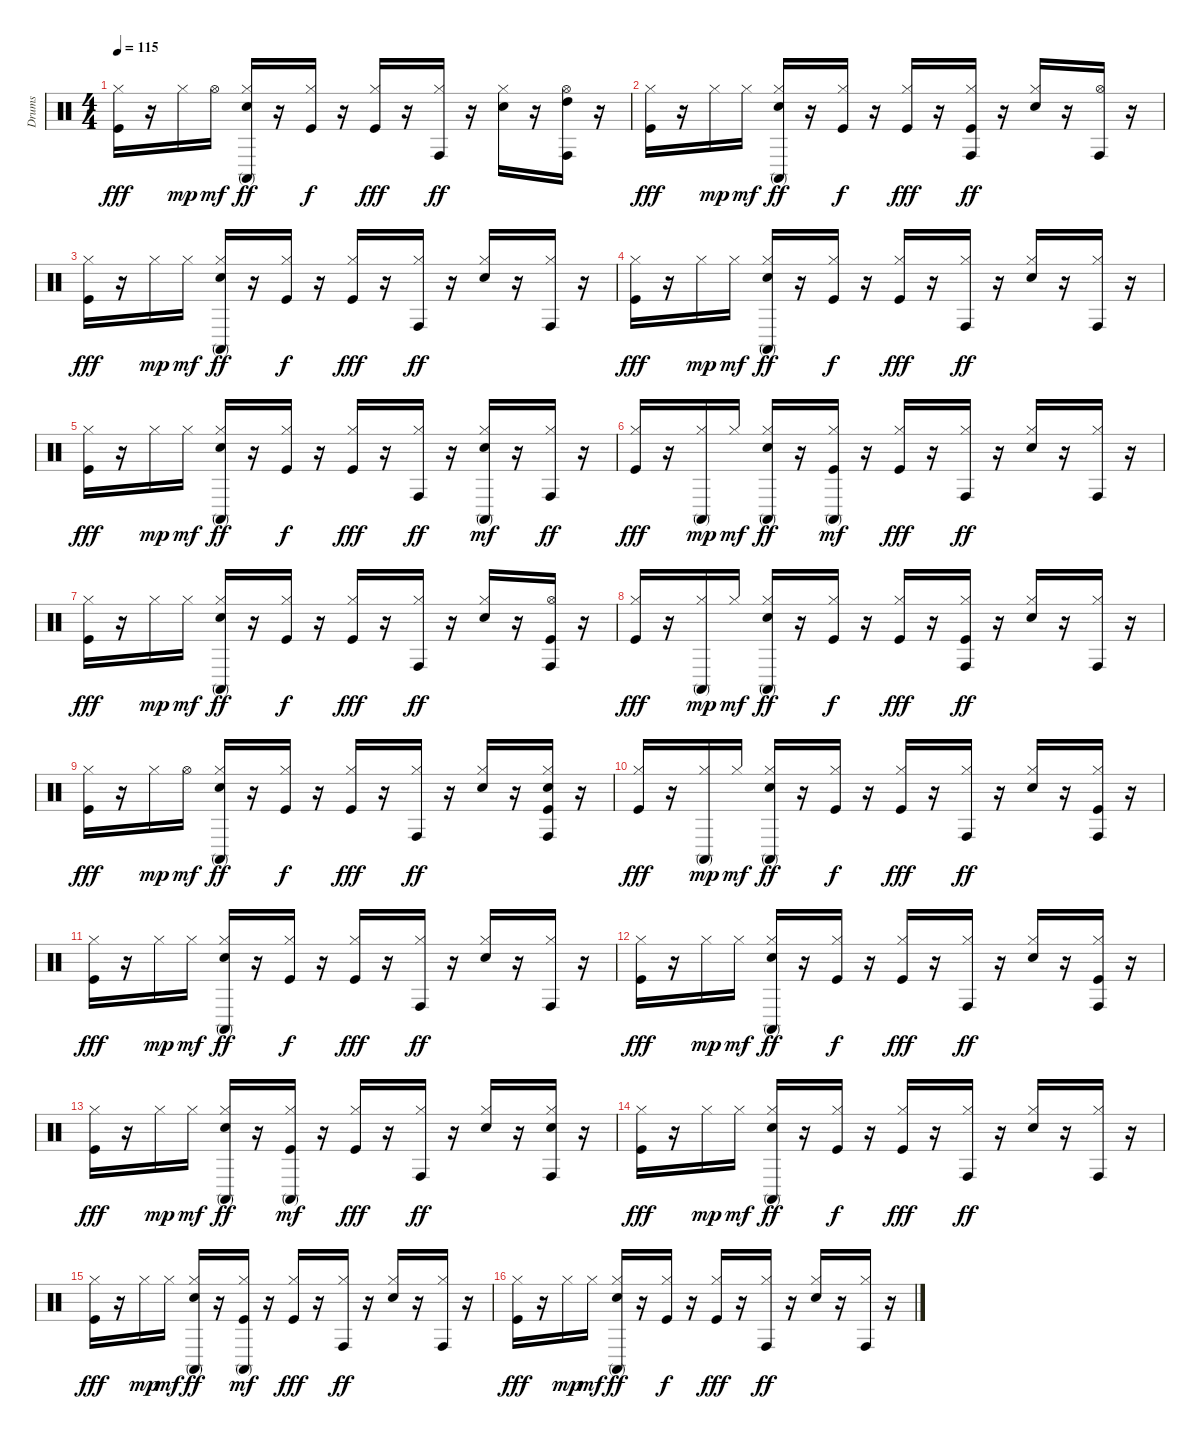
\track ("Drums" "Drums") {instrument percussion}
\staff {score}
\articulation defaults
\ts (4 4)
\tempo 115
\clef neutral
\ks c
("Kick (hit)" "Hi-Hat (closed)").16{dy fff} r.16 "Hi-Hat (closed)".16{dy mp} "Hi-Hat (open)".16{dy mf} ("Snare (hit) 2" "Hi-Hat (closed)" "Conga high (mute)").16{dy ff} r.16 ("Kick (hit)" "Hi-Hat (closed)").16{dy f} r.16 ("Kick (hit)" "Hi-Hat (closed)").16{dy fff} r.16 ("Hi-Hat (closed)" "Conga high (hit)").16{dy ff} r.16 ("Snare (hit) 2" "Hi-Hat (closed)").16 r.16 ("Hi-Hat (open)" "High Tom (hit)" "Conga high (hit)").16 r.16 |
("Kick (hit)" "Hi-Hat (closed)").16{dy fff} r.16 "Hi-Hat (closed)".16{dy mp} "Hi-Hat (closed)".16{dy mf} ("Snare (hit) 2" "Hi-Hat (closed)" "Conga high (mute)").16{dy ff} r.16 ("Kick (hit)" "Hi-Hat (closed)").16{dy f} r.16 ("Kick (hit)" "Hi-Hat (closed)").16{dy fff} r.16 ("Kick (hit)" "Hi-Hat (closed)" "Conga high (hit)").16{dy ff} r.16 ("Snare (hit) 2" "Hi-Hat (closed)").16 r.16 ("Hi-Hat (open)" "Conga high (hit)").16 r.16 |
("Kick (hit)" "Hi-Hat (closed)").16{dy fff} r.16 "Hi-Hat (closed)".16{dy mp} "Hi-Hat (closed)".16{dy mf} ("Snare (hit) 2" "Hi-Hat (closed)" "Conga high (mute)").16{dy ff} r.16 ("Kick (hit)" "Hi-Hat (closed)").16{dy f} r.16 ("Kick (hit)" "Hi-Hat (closed)").16{dy fff} r.16 ("Hi-Hat (closed)" "Conga high (hit)").16{dy ff} r.16 ("Snare (hit) 2" "Hi-Hat (closed)").16 r.16 ("Hi-Hat (closed)" "Conga high (hit)").16 r.16 |
("Kick (hit)" "Hi-Hat (closed)").16{dy fff} r.16 "Hi-Hat (closed)".16{dy mp} "Hi-Hat (closed)".16{dy mf} ("Snare (hit) 2" "Hi-Hat (closed)" "Conga high (mute)").16{dy ff} r.16 ("Kick (hit)" "Hi-Hat (closed)").16{dy f} r.16 ("Kick (hit)" "Hi-Hat (closed)").16{dy fff} r.16 ("Hi-Hat (closed)" "Conga high (hit)").16{dy ff} r.16 ("Snare (hit) 2" "Hi-Hat (closed)").16 r.16 ("Hi-Hat (closed)" "Conga high (hit)").16 r.16 |
("Kick (hit)" "Hi-Hat (closed)").16{dy fff} r.16 "Hi-Hat (closed)".16{dy mp} "Hi-Hat (closed)".16{dy mf} ("Snare (hit) 2" "Hi-Hat (closed)" "Conga high (mute)").16{dy ff} r.16 ("Kick (hit)" "Hi-Hat (closed)").16{dy f} r.16 ("Kick (hit)" "Hi-Hat (closed)").16{dy fff} r.16 ("Hi-Hat (closed)" "Conga high (hit)").16{dy ff} r.16 ("Snare (hit) 2" "Hi-Hat (closed)" "Conga high (mute)").16{dy mf} r.16 ("Hi-Hat (closed)" "Conga high (hit)").16{dy ff} r.16 |
("Kick (hit)" "Hi-Hat (closed)").16{dy fff} r.16 ("Hi-Hat (closed)" "Conga high (mute)").16{dy mp} "Hi-Hat (closed)".16{dy mf} ("Snare (hit) 2" "Hi-Hat (closed)" "Conga high (mute)").16{dy ff} r.16 ("Kick (hit)" "Hi-Hat (closed)" "Conga high (mute)").16{dy mf} r.16 ("Kick (hit)" "Hi-Hat (closed)").16{dy fff} r.16 ("Hi-Hat (closed)" "Conga high (hit)").16{dy ff} r.16 ("Snare (hit) 2" "Hi-Hat (closed)").16 r.16 ("Hi-Hat (closed)" "Conga high (hit)").16 r.16 |
("Kick (hit)" "Hi-Hat (closed)").16{dy fff} r.16 "Hi-Hat (closed)".16{dy mp} "Hi-Hat (closed)".16{dy mf} ("Snare (hit) 2" "Hi-Hat (closed)" "Conga high (mute)").16{dy ff} r.16 ("Kick (hit)" "Hi-Hat (closed)").16{dy f} r.16 ("Kick (hit)" "Hi-Hat (closed)").16{dy fff} r.16 ("Hi-Hat (closed)" "Conga high (hit)").16{dy ff} r.16 ("Snare (hit) 2" "Hi-Hat (closed)").16 r.16 ("Kick (hit)" "Hi-Hat (open)" "Conga high (hit)").16 r.16 |
("Kick (hit)" "Hi-Hat (closed)").16{dy fff} r.16 ("Hi-Hat (closed)" "Conga high (mute)").16{dy mp} "Hi-Hat (closed)".16{dy mf} ("Snare (hit) 2" "Hi-Hat (closed)" "Conga high (mute)").16{dy ff} r.16 ("Kick (hit)" "Hi-Hat (closed)").16{dy f} r.16 ("Kick (hit)" "Hi-Hat (closed)").16{dy fff} r.16 ("Kick (hit)" "Hi-Hat (closed)" "Conga high (hit)").16{dy ff} r.16 ("Snare (hit) 2" "Hi-Hat (closed)").16 r.16 ("Hi-Hat (closed)" "Conga high (hit)").16 r.16 |
("Kick (hit)" "Hi-Hat (closed)").16{dy fff} r.16 "Hi-Hat (closed)".16{dy mp} "Hi-Hat (open)".16{dy mf} ("Snare (hit) 2" "Hi-Hat (closed)" "Conga high (mute)").16{dy ff} r.16 ("Kick (hit)" "Hi-Hat (closed)").16{dy f} r.16 ("Kick (hit)" "Hi-Hat (closed)").16{dy fff} r.16 ("Hi-Hat (closed)" "Conga high (hit)").16{dy ff} r.16 ("Snare (hit) 2" "Hi-Hat (closed)").16 r.16 ("Kick (hit)" "Snare (hit) 2" "Hi-Hat (closed)" "Conga high (hit)").16 r.16 |
("Kick (hit)" "Hi-Hat (closed)").16{dy fff} r.16 ("Hi-Hat (closed)" "Conga high (mute)").16{dy mp} "Hi-Hat (closed)".16{dy mf} ("Snare (hit) 2" "Hi-Hat (closed)" "Conga high (mute)").16{dy ff} r.16 ("Kick (hit)" "Hi-Hat (closed)").16{dy f} r.16 ("Kick (hit)" "Hi-Hat (closed)").16{dy fff} r.16 ("Hi-Hat (closed)" "Conga high (hit)").16{dy ff} r.16 ("Snare (hit) 2" "Hi-Hat (closed)").16 r.16 ("Kick (hit)" "Hi-Hat (closed)" "Conga high (hit)").16 r.16 |
("Kick (hit)" "Hi-Hat (closed)").16{dy fff} r.16 "Hi-Hat (closed)".16{dy mp} "Hi-Hat (closed)".16{dy mf} ("Snare (hit) 2" "Hi-Hat (closed)" "Conga high (mute)").16{dy ff} r.16 ("Kick (hit)" "Hi-Hat (closed)").16{dy f} r.16 ("Kick (hit)" "Hi-Hat (closed)").16{dy fff} r.16 ("Hi-Hat (closed)" "Conga high (hit)").16{dy ff} r.16 ("Snare (hit) 2" "Hi-Hat (closed)").16 r.16 ("Hi-Hat (closed)" "Conga high (hit)").16 r.16 |
("Kick (hit)" "Hi-Hat (closed)").16{dy fff} r.16 "Hi-Hat (closed)".16{dy mp} "Hi-Hat (closed)".16{dy mf} ("Snare (hit) 2" "Hi-Hat (closed)" "Conga high (mute)").16{dy ff} r.16 ("Kick (hit)" "Hi-Hat (closed)").16{dy f} r.16 ("Kick (hit)" "Hi-Hat (closed)").16{dy fff} r.16 ("Hi-Hat (closed)" "Conga high (hit)").16{dy ff} r.16 ("Snare (hit) 2" "Hi-Hat (closed)").16 r.16 ("Kick (hit)" "Hi-Hat (closed)" "Conga high (hit)").16 r.16 |
("Kick (hit)" "Hi-Hat (closed)").16{dy fff} r.16 "Hi-Hat (closed)".16{dy mp} "Hi-Hat (closed)".16{dy mf} ("Snare (hit) 2" "Hi-Hat (closed)" "Conga high (mute)").16{dy ff} r.16 ("Kick (hit)" "Hi-Hat (closed)" "Conga high (mute)").16{dy mf} r.16 ("Kick (hit)" "Hi-Hat (closed)").16{dy fff} r.16 ("Hi-Hat (closed)" "Conga high (hit)").16{dy ff} r.16 ("Snare (hit) 2" "Hi-Hat (closed)").16 r.16 ("Snare (hit) 2" "Hi-Hat (closed)" "Conga high (hit)").16 r.16 |
("Kick (hit)" "Hi-Hat (closed)").16{dy fff} r.16 "Hi-Hat (closed)".16{dy mp} "Hi-Hat (closed)".16{dy mf} ("Snare (hit) 2" "Hi-Hat (closed)" "Conga high (mute)").16{dy ff} r.16 ("Kick (hit)" "Hi-Hat (closed)").16{dy f} r.16 ("Kick (hit)" "Hi-Hat (closed)").16{dy fff} r.16 ("Hi-Hat (closed)" "Conga high (hit)").16{dy ff} r.16 ("Snare (hit) 2" "Hi-Hat (closed)").16 r.16 ("Hi-Hat (closed)" "Conga high (hit)").16 r.16 |
("Kick (hit)" "Hi-Hat (closed)").16{dy fff} r.16 "Hi-Hat (closed)".16{dy mp} "Hi-Hat (closed)".16{dy mf} ("Snare (hit) 2" "Hi-Hat (closed)" "Conga high (mute)").16{dy ff} r.16 ("Kick (hit)" "Hi-Hat (closed)" "Conga high (mute)").16{dy mf} r.16 ("Kick (hit)" "Hi-Hat (closed)").16{dy fff} r.16 ("Hi-Hat (closed)" "Conga high (hit)").16{dy ff} r.16 ("Snare (hit) 2" "Hi-Hat (closed)").16 r.16 ("Hi-Hat (closed)" "Conga high (hit)").16 r.16 |
("Kick (hit)" "Hi-Hat (closed)").16{dy fff} r.16 "Hi-Hat (closed)".16{dy mp} "Hi-Hat (closed)".16{dy mf} ("Snare (hit) 2" "Hi-Hat (closed)" "Conga high (mute)").16{dy ff} r.16 ("Kick (hit)" "Hi-Hat (closed)").16{dy f} r.16 ("Kick (hit)" "Hi-Hat (closed)").16{dy fff} r.16 ("Hi-Hat (closed)" "Conga high (hit)").16{dy ff} r.16 ("Snare (hit) 2" "Hi-Hat (closed)").16 r.16 ("Hi-Hat (closed)" "Conga high (hit)").16 r.16
